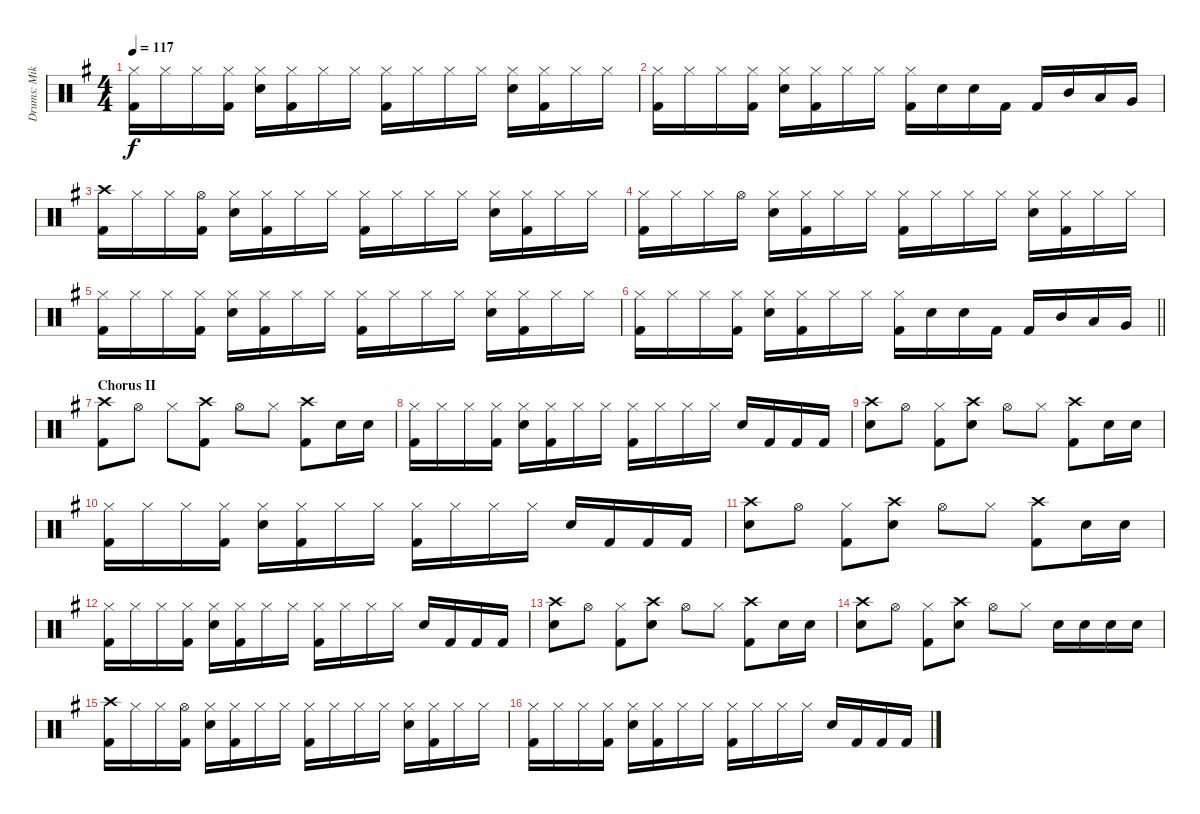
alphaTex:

\track ("Drums: Mike" "Drums: Mik") {instrument percussion}
\staff {score}
\articulation defaults
\ts (4 4)
\tempo 117
\clef neutral
\ks g
("Hi-Hat (closed)" "Kick (hit) 2").16{dy f} "Hi-Hat (closed)".16 "Hi-Hat (closed)".16 ("Hi-Hat (closed)" "Kick (hit) 2").16 ("Hi-Hat (closed)" "Electric Snare (hit)").16 ("Hi-Hat (closed)" "Kick (hit) 2").16 "Hi-Hat (closed)".16 "Hi-Hat (closed)".16 ("Hi-Hat (closed)" "Kick (hit) 2").16 "Hi-Hat (closed)".16 "Hi-Hat (closed)".16 "Hi-Hat (closed)".16 ("Hi-Hat (closed)" "Electric Snare (hit)").16 ("Hi-Hat (closed)" "Kick (hit) 2").16 "Hi-Hat (closed)".16 "Hi-Hat (closed)".16 |
("Hi-Hat (closed)" "Kick (hit) 2").16 "Hi-Hat (closed)".16 "Hi-Hat (closed)".16 ("Hi-Hat (closed)" "Kick (hit) 2").16 ("Hi-Hat (closed)" "Electric Snare (hit)").16 ("Hi-Hat (closed)" "Kick (hit) 2").16 "Hi-Hat (closed)".16 "Hi-Hat (closed)".16 ("Hi-Hat (closed)" "Kick (hit) 2").16 "Electric Snare (hit)".16 "Electric Snare (hit)".16 "Kick (hit) 2".16 "Kick (hit) 2".16 "Mid Tom (hit)".16 "Low Tom (hit)".16 "Very Low Tom (hit)".16 |
("Crash high (hit)" "Kick (hit) 2").16 "Hi-Hat (closed)".16 "Hi-Hat (closed)".16 ("Hi-Hat (open)" "Kick (hit) 2").16 ("Hi-Hat (closed)" "Electric Snare (hit)").16 ("Hi-Hat (closed)" "Kick (hit) 2").16 "Hi-Hat (closed)".16 "Hi-Hat (closed)".16 ("Hi-Hat (closed)" "Kick (hit) 2").16 "Hi-Hat (closed)".16 "Hi-Hat (closed)".16 "Hi-Hat (closed)".16 ("Hi-Hat (closed)" "Electric Snare (hit)").16 ("Hi-Hat (closed)" "Kick (hit) 2").16 "Hi-Hat (closed)".16 "Hi-Hat (closed)".16 |
("Hi-Hat (closed)" "Kick (hit) 2").16 "Hi-Hat (closed)".16 "Hi-Hat (closed)".16 "Hi-Hat (open)".16 ("Hi-Hat (closed)" "Electric Snare (hit)").16 ("Hi-Hat (closed)" "Kick (hit) 2").16 "Hi-Hat (closed)".16 "Hi-Hat (closed)".16 ("Hi-Hat (closed)" "Kick (hit) 2").16 "Hi-Hat (closed)".16 "Hi-Hat (closed)".16 "Hi-Hat (closed)".16 ("Hi-Hat (closed)" "Electric Snare (hit)").16 ("Hi-Hat (closed)" "Kick (hit) 2").16 "Hi-Hat (closed)".16 "Hi-Hat (closed)".16 |
("Hi-Hat (closed)" "Kick (hit) 2").16 "Hi-Hat (closed)".16 "Hi-Hat (closed)".16 ("Hi-Hat (closed)" "Kick (hit) 2").16 ("Hi-Hat (closed)" "Electric Snare (hit)").16 ("Hi-Hat (closed)" "Kick (hit) 2").16 "Hi-Hat (closed)".16 "Hi-Hat (closed)".16 ("Hi-Hat (closed)" "Kick (hit) 2").16 "Hi-Hat (closed)".16 "Hi-Hat (closed)".16 "Hi-Hat (closed)".16 ("Hi-Hat (closed)" "Electric Snare (hit)").16 ("Hi-Hat (closed)" "Kick (hit) 2").16 "Hi-Hat (closed)".16 "Hi-Hat (closed)".16 |
\barLineRight lightlight
("Hi-Hat (closed)" "Kick (hit) 2").16 "Hi-Hat (closed)".16 "Hi-Hat (closed)".16 ("Hi-Hat (closed)" "Kick (hit) 2").16 ("Hi-Hat (closed)" "Electric Snare (hit)").16 ("Hi-Hat (closed)" "Kick (hit) 2").16 "Hi-Hat (closed)".16 "Hi-Hat (closed)".16 ("Hi-Hat (closed)" "Kick (hit) 2").16 "Electric Snare (hit)".16 "Electric Snare (hit)".16 "Kick (hit) 2".16 "Kick (hit) 2".16 "Mid Tom (hit)".16 "Low Tom (hit)".16 "Very Low Tom (hit)".16 |
\section ("" "Chorus II")
("Crash high (hit)" "Kick (hit) 2").8 "Hi-Hat (open)".8 "Hi-Hat (closed)".8 ("Crash high (hit)" "Kick (hit) 2").8 "Hi-Hat (open)".8 "Hi-Hat (closed)".8 ("Crash high (hit)" "Kick (hit) 2").8 "Electric Snare (hit)".16 "Electric Snare (hit)".16 |
("Hi-Hat (closed)" "Kick (hit) 2").16 "Hi-Hat (closed)".16 "Hi-Hat (closed)".16 ("Hi-Hat (closed)" "Kick (hit) 2").16 ("Hi-Hat (closed)" "Electric Snare (hit)").16 ("Hi-Hat (closed)" "Kick (hit) 2").16 "Hi-Hat (closed)".16 "Hi-Hat (closed)".16 ("Hi-Hat (closed)" "Kick (hit) 2").16 "Hi-Hat (closed)".16 "Hi-Hat (closed)".16 "Hi-Hat (closed)".16 "Electric Snare (hit)".16 "Kick (hit) 2".16 "Kick (hit) 2".16 "Kick (hit) 2".16 |
("Crash high (hit)" "Electric Snare (hit)").8 "Hi-Hat (open)".8 ("Hi-Hat (closed)" "Kick (hit) 2").8 ("Crash high (hit)" "Electric Snare (hit)").8 "Hi-Hat (open)".8 "Hi-Hat (closed)".8 ("Crash high (hit)" "Kick (hit) 2").8 "Electric Snare (hit)".16 "Electric Snare (hit)".16 |
("Hi-Hat (closed)" "Kick (hit) 2").16 "Hi-Hat (closed)".16 "Hi-Hat (closed)".16 ("Hi-Hat (closed)" "Kick (hit) 2").16 ("Hi-Hat (closed)" "Electric Snare (hit)").16 ("Hi-Hat (closed)" "Kick (hit) 2").16 "Hi-Hat (closed)".16 "Hi-Hat (closed)".16 ("Hi-Hat (closed)" "Kick (hit) 2").16 "Hi-Hat (closed)".16 "Hi-Hat (closed)".16 "Hi-Hat (closed)".16 "Electric Snare (hit)".16 "Kick (hit) 2".16 "Kick (hit) 2".16 "Kick (hit) 2".16 |
("Crash high (hit)" "Electric Snare (hit)").8 "Hi-Hat (open)".8 ("Hi-Hat (closed)" "Kick (hit) 2").8 ("Crash high (hit)" "Electric Snare (hit)").8 "Hi-Hat (open)".8 "Hi-Hat (closed)".8 ("Crash high (hit)" "Kick (hit) 2").8 "Electric Snare (hit)".16 "Electric Snare (hit)".16 |
("Hi-Hat (closed)" "Kick (hit) 2").16 "Hi-Hat (closed)".16 "Hi-Hat (closed)".16 ("Hi-Hat (closed)" "Kick (hit) 2").16 ("Hi-Hat (closed)" "Electric Snare (hit)").16 ("Hi-Hat (closed)" "Kick (hit) 2").16 "Hi-Hat (closed)".16 "Hi-Hat (closed)".16 ("Hi-Hat (closed)" "Kick (hit) 2").16 "Hi-Hat (closed)".16 "Hi-Hat (closed)".16 "Hi-Hat (closed)".16 "Electric Snare (hit)".16 "Kick (hit) 2".16 "Kick (hit) 2".16 "Kick (hit) 2".16 |
("Crash high (hit)" "Electric Snare (hit)").8 "Hi-Hat (open)".8 ("Hi-Hat (closed)" "Kick (hit) 2").8 ("Crash high (hit)" "Electric Snare (hit)").8 "Hi-Hat (open)".8 "Hi-Hat (closed)".8 ("Crash high (hit)" "Kick (hit) 2").8 "Electric Snare (hit)".16 "Electric Snare (hit)".16 |
("Crash high (hit)" "Electric Snare (hit)").8 "Hi-Hat (open)".8 ("Hi-Hat (closed)" "Kick (hit) 2").8 ("Crash high (hit)" "Electric Snare (hit)").8 "Hi-Hat (open)".8 "Hi-Hat (closed)".8 "Electric Snare (hit)".16 "Electric Snare (hit)".16 "Electric Snare (hit)".16 "Electric Snare (hit)".16 |
("Crash high (hit)" "Kick (hit) 2").16 "Hi-Hat (closed)".16 "Hi-Hat (closed)".16 ("Hi-Hat (open)" "Kick (hit) 2").16 ("Hi-Hat (closed)" "Electric Snare (hit)").16 ("Hi-Hat (closed)" "Kick (hit) 2").16 "Hi-Hat (closed)".16 "Hi-Hat (closed)".16 ("Hi-Hat (closed)" "Kick (hit) 2").16 "Hi-Hat (closed)".16 "Hi-Hat (closed)".16 "Hi-Hat (closed)".16 ("Hi-Hat (closed)" "Electric Snare (hit)").16 ("Hi-Hat (closed)" "Kick (hit) 2").16 "Hi-Hat (closed)".16 "Hi-Hat (closed)".16 |
("Hi-Hat (closed)" "Kick (hit) 2").16 "Hi-Hat (closed)".16 "Hi-Hat (closed)".16 ("Hi-Hat (closed)" "Kick (hit) 2").16 ("Hi-Hat (closed)" "Electric Snare (hit)").16 ("Hi-Hat (closed)" "Kick (hit) 2").16 "Hi-Hat (closed)".16 "Hi-Hat (closed)".16 ("Hi-Hat (closed)" "Kick (hit) 2").16 "Hi-Hat (closed)".16 "Hi-Hat (closed)".16 "Hi-Hat (closed)".16 "Electric Snare (hit)".16 "Kick (hit) 2".16 "Kick (hit) 2".16 "Kick (hit) 2".16
